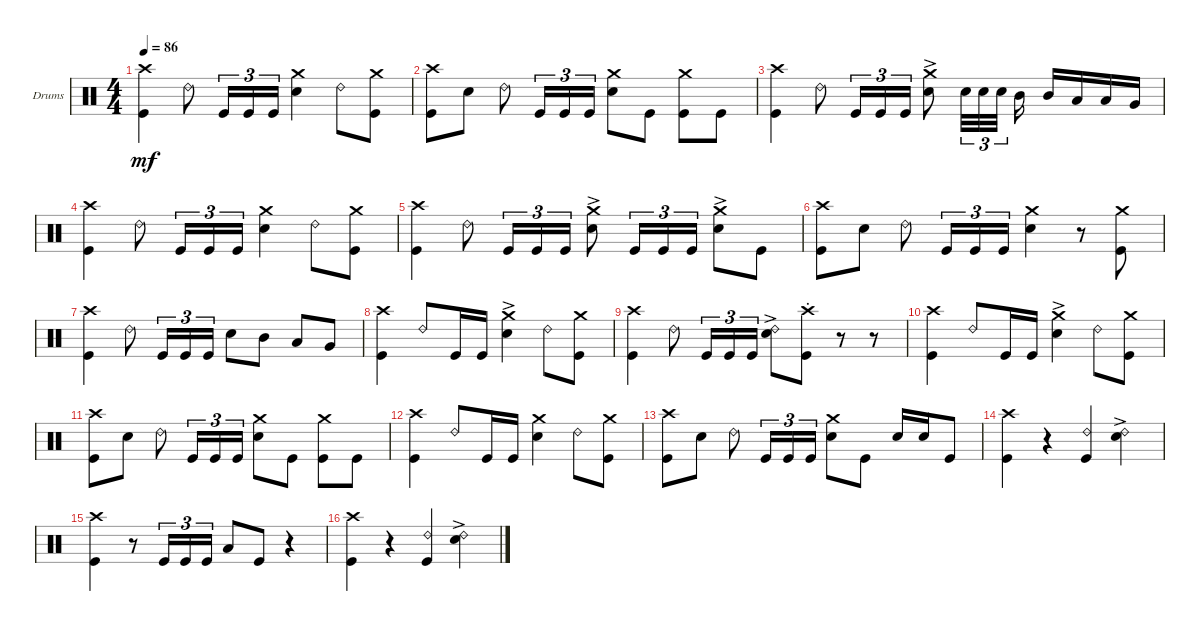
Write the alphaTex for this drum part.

\defaultSystemsLayout 4
\bracketExtendMode groupsimilarinstruments
\firstSystemTrackNameOrientation horizontal
\otherSystemsTrackNameOrientation horizontal
\track ("Drumkit" "Drums") {instrument percussion}
\staff {score}
\articulation defaults
\ts (4 4)
\tempo 86
\clef neutral
\scale
0.282579
\ks c
("Kick (hit)" "Crash high (hit)").4{dy mf} "Ride (bell) 2".8 "Kick (hit)".16{tu (3 2)} "Kick (hit)".16{tu (3 2)} "Kick (hit)".16{tu (3 2)} ("Snare (hit) 2" "Crash medium (hit)").4 "Ride (bell) 2".8 ("Kick (hit)" "Crash medium (hit)").8 |
\scale
0.320988 ("Kick (hit)" "Crash high (hit)").8 "Snare (hit) 2".8 "Ride (bell) 2".8 "Kick (hit)".16{tu (3 2)} "Kick (hit)".16{tu (3 2)} "Kick (hit)".16{tu (3 2)} ("Snare (hit) 2" "Crash medium (hit)").8 "Kick (hit)".8 ("Kick (hit)" "Crash medium (hit)").8 "Kick (hit)".8 |
\scale
0.396433 ("Kick (hit)" "Crash high (hit)").4 "Ride (bell) 2".8 "Kick (hit)".16{tu (3 2)} "Kick (hit)".16{tu (3 2)} "Kick (hit)".16{tu (3 2)} ("Snare (hit) 2"{ac} "Crash medium (hit)").8 "Snare (hit) 2".32{tu (3 2)} "Snare (hit) 2".32{tu (3 2)} "Snare (hit) 2".32{tu (3 2)} "Mid Tom (hit)".16 "Mid Tom (hit)".16 "Low Tom (hit)".16 "Low Tom (hit)".16 "Very Low Tom (hit)".16 |
\scale
0.310241 ("Kick (hit)" "Crash high (hit)").4 "Ride (bell) 2".8 "Kick (hit)".16{tu (3 2)} "Kick (hit)".16{tu (3 2)} "Kick (hit)".16{tu (3 2)} ("Snare (hit) 2" "Crash medium (hit)").4 "Ride (bell) 2".8 ("Kick (hit)" "Crash medium (hit)").8 |
\scale
0.358434 ("Kick (hit)" "Crash high (hit)").4 "Ride (bell) 2".8 "Kick (hit)".16{tu (3 2)} "Kick (hit)".16{tu (3 2)} "Kick (hit)".16{tu (3 2)} ("Snare (hit) 2"{ac} "Crash medium (hit)").8 "Kick (hit)".16{tu (3 2)} "Kick (hit)".16{tu (3 2)} "Kick (hit)".16{tu (3 2)} ("Snare (hit) 2"{ac} "Crash medium (hit)").8 "Kick (hit)".8 |
\scale
0.331325 ("Kick (hit)" "Crash high (hit)").8 "Snare (hit) 2".8 "Ride (bell) 2".8 "Kick (hit)".16{tu (3 2)} "Kick (hit)".16{tu (3 2)} "Kick (hit)".16{tu (3 2)} ("Snare (hit) 2" "Crash medium (hit)").4 r.8 ("Kick (hit)" "Crash medium (hit)").8 |
\scale
0.363636 ("Kick (hit)" "Crash high (hit)").4 "Ride (bell) 2".8 "Kick (hit)".16{tu (3 2)} "Kick (hit)".16{tu (3 2)} "Kick (hit)".16{tu (3 2)} "Snare (hit) 2".8 "Mid Tom (hit)".8 "Low Tom (hit)".8 "Very Low Tom (hit)".8 |
\scale
0.272727 ("Kick (hit)" "Crash high (hit)").4 "Ride (bell) 2".8 "Kick (hit)".16 "Kick (hit)".16 ("Snare (hit) 2"{ac} "Crash medium (hit)").4 "Ride (bell) 2".8 ("Kick (hit)" "Crash medium (hit)").8 |
\scale
0.363636 ("Kick (hit)" "Crash high (hit)").4 "Ride (bell) 2".8 "Kick (hit)".16{tu (3 2)} "Kick (hit)".16{tu (3 2)} "Kick (hit)".16{tu (3 2)} ("Ride (bell) 2" "Snare (hit) 2"{ac}).8 ("Kick (hit)" "Crash high (hit)"{st}).8 r.8 r.8 |
\scale
0.292553 ("Kick (hit)" "Crash high (hit)").4 "Ride (bell) 2".8 "Kick (hit)".16 "Kick (hit)".16 ("Snare (hit) 2"{ac} "Crash medium (hit)").4 "Ride (bell) 2".8 ("Kick (hit)" "Crash medium (hit)").8 |
\scale
0.414894 ("Kick (hit)" "Crash high (hit)").8 "Snare (hit) 2".8 "Ride (bell) 2".8 "Kick (hit)".16{tu (3 2)} "Kick (hit)".16{tu (3 2)} "Kick (hit)".16{tu (3 2)} ("Snare (hit) 2" "Crash medium (hit)").8 "Kick (hit)".8 ("Kick (hit)" "Crash medium (hit)").8 "Kick (hit)".8 |
\scale
0.292553 ("Kick (hit)" "Crash high (hit)").4 "Ride (bell) 2".8 "Kick (hit)".16 "Kick (hit)".16 ("Snare (hit) 2" "Crash medium (hit)").4 "Ride (bell) 2".8 ("Kick (hit)" "Crash medium (hit)").8 |
\scale
0.42807 ("Kick (hit)" "Crash high (hit)").8 "Snare (hit) 2".8 "Ride (bell) 2".8 "Kick (hit)".16{tu (3 2)} "Kick (hit)".16{tu (3 2)} "Kick (hit)".16{tu (3 2)} ("Snare (hit) 2" "Crash medium (hit)").8 "Kick (hit)".8 "Snare (hit) 2".16 "Snare (hit) 2".16 "Kick (hit)".8 |
\scale
0.210526 ("Kick (hit)" "Crash high (hit)").4 r.4 ("Ride (bell) 2" "Kick (hit)").4 ("Snare (hit) 2"{ac} "Ride (bell) 2").4 |
\scale
0.361404 ("Kick (hit)" "Crash high (hit)").4 r.8 "Kick (hit)".16{tu (3 2)} "Kick (hit)".16{tu (3 2)} "Kick (hit)".16{tu (3 2)} "Low Tom (hit)".8 "Kick (hit)".8 r.4 |
\scale
0.269058 ("Kick (hit)" "Crash high (hit)").4 r.4 ("Ride (bell) 2" "Kick (hit)").4 ("Snare (hit) 2"{ac} "Ride (bell) 2").4
